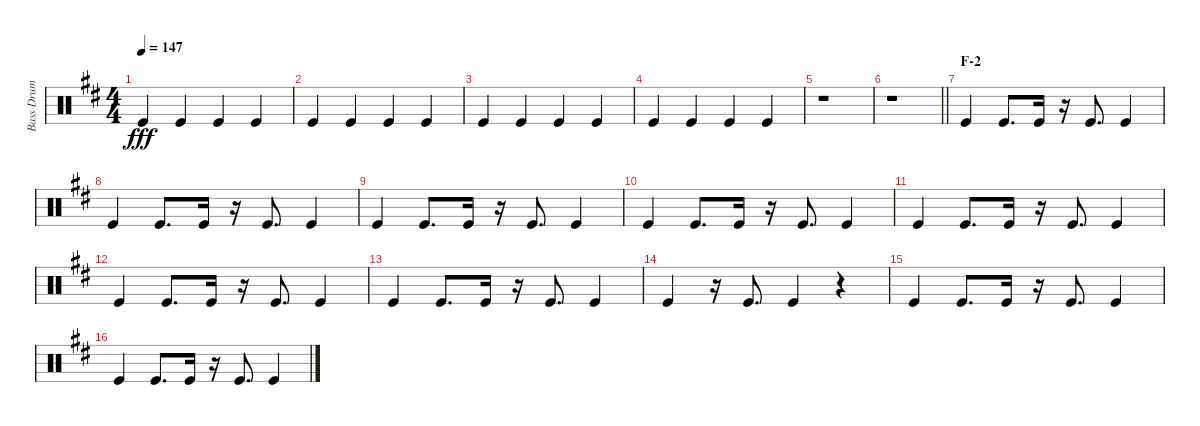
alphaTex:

\track ("Bass Drum" "Bass Drum") {instrument percussion}
\staff {score}
\articulation defaults
\ts (4 4)
\tempo 147
\clef neutral
\ks d "Kick (hit)".4{dy fff} "Kick (hit)".4 "Kick (hit)".4 "Kick (hit)".4
|
"Kick (hit)".4 "Kick (hit)".4 "Kick (hit)".4 "Kick (hit)".4 |
"Kick (hit)".4 "Kick (hit)".4 "Kick (hit)".4 "Kick (hit)".4 |
"Kick (hit)".4 "Kick (hit)".4 "Kick (hit)".4 "Kick (hit)".4 |
r.1 |
\barLineRight lightlight
r.1 |
\section ("" "F-2")
"Kick (hit)".4 "Kick (hit)".8{d} "Kick (hit)".16 r.16 "Kick (hit)".8{d} "Kick (hit)".4 |
"Kick (hit)".4 "Kick (hit)".8{d} "Kick (hit)".16 r.16 "Kick (hit)".8{d} "Kick (hit)".4 |
"Kick (hit)".4 "Kick (hit)".8{d} "Kick (hit)".16 r.16 "Kick (hit)".8{d} "Kick (hit)".4 |
"Kick (hit)".4 "Kick (hit)".8{d} "Kick (hit)".16 r.16 "Kick (hit)".8{d} "Kick (hit)".4 |
"Kick (hit)".4 "Kick (hit)".8{d} "Kick (hit)".16 r.16 "Kick (hit)".8{d} "Kick (hit)".4 |
"Kick (hit)".4 "Kick (hit)".8{d} "Kick (hit)".16 r.16 "Kick (hit)".8{d} "Kick (hit)".4 |
"Kick (hit)".4 "Kick (hit)".8{d} "Kick (hit)".16 r.16 "Kick (hit)".8{d} "Kick (hit)".4 |
"Kick (hit)".4 r.16 "Kick (hit)".8{d} "Kick (hit)".4 r.4 |
"Kick (hit)".4 "Kick (hit)".8{d} "Kick (hit)".16 r.16 "Kick (hit)".8{d} "Kick (hit)".4 |
"Kick (hit)".4 "Kick (hit)".8{d} "Kick (hit)".16 r.16 "Kick (hit)".8{d} "Kick (hit)".4
